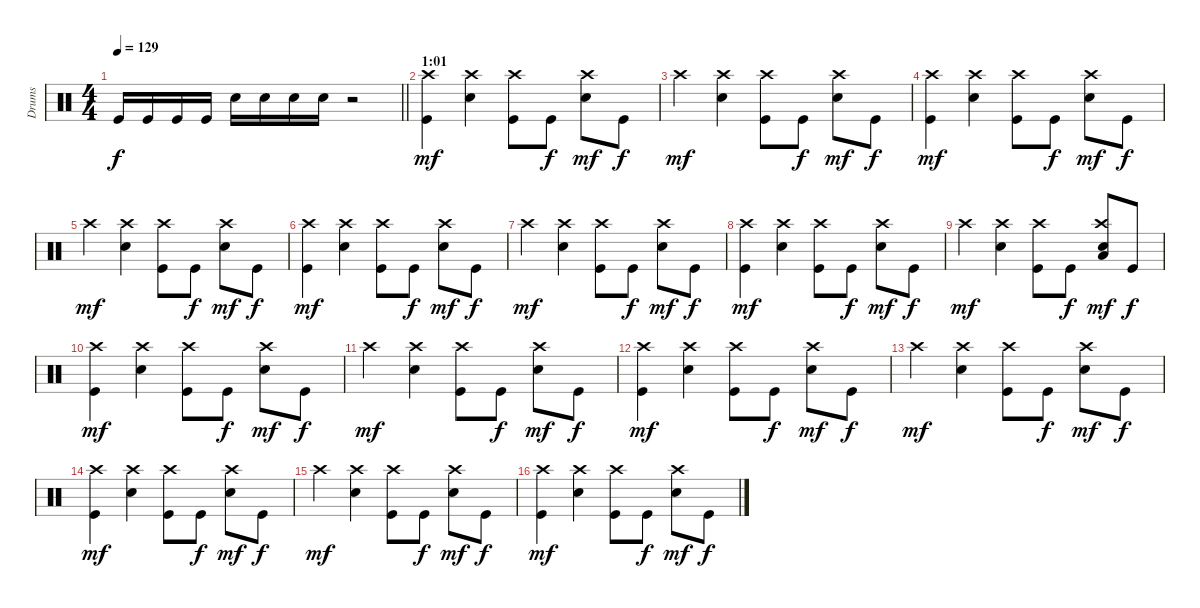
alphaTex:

\track ("Drums" "Drums") {instrument percussion}
\staff {score}
\articulation defaults
\ts (4 4)
\tempo 129
\clef neutral
\barLineRight lightlight
\ks c "Kick (hit)".16{dy f} "Kick (hit)".16 "Kick (hit)".16 "Kick (hit)".16 "Snare (hit) 2".16 "Snare (hit) 2".16 "Snare (hit) 2".16 "Snare (hit) 2".16
r.2 |
\section ("" "1:01")
("Crash high (hit)" "Kick (hit)").4{dy mf} ("Crash high (hit)" "Snare (hit) 2").4 ("Crash high (hit)" "Kick (hit)").8 "Kick (hit)".8{dy f} ("Crash high (hit)" "Snare (hit) 2").8{dy mf} "Kick (hit)".8{dy f} |
"Crash high (hit)".4{dy mf} ("Crash high (hit)" "Snare (hit) 2").4 ("Crash high (hit)" "Kick (hit)").8 "Kick (hit)".8{dy f} ("Crash high (hit)" "Snare (hit) 2").8{dy mf} "Kick (hit)".8{dy f} |
("Crash high (hit)" "Kick (hit)").4{dy mf} ("Crash high (hit)" "Snare (hit) 2").4 ("Crash high (hit)" "Kick (hit)").8 "Kick (hit)".8{dy f} ("Crash high (hit)" "Snare (hit) 2").8{dy mf} "Kick (hit)".8{dy f} |
"Crash high (hit)".4{dy mf} ("Crash high (hit)" "Snare (hit) 2").4 ("Crash high (hit)" "Kick (hit)").8 "Kick (hit)".8{dy f} ("Crash high (hit)" "Snare (hit) 2").8{dy mf} "Kick (hit)".8{dy f} |
("Crash high (hit)" "Kick (hit)").4{dy mf} ("Crash high (hit)" "Snare (hit) 2").4 ("Crash high (hit)" "Kick (hit)").8 "Kick (hit)".8{dy f} ("Crash high (hit)" "Snare (hit) 2").8{dy mf} "Kick (hit)".8{dy f} |
"Crash high (hit)".4{dy mf} ("Crash high (hit)" "Snare (hit) 2").4 ("Crash high (hit)" "Kick (hit)").8 "Kick (hit)".8{dy f} ("Crash high (hit)" "Snare (hit) 2").8{dy mf} "Kick (hit)".8{dy f} |
("Crash high (hit)" "Kick (hit)").4{dy mf} ("Crash high (hit)" "Snare (hit) 2").4 ("Crash high (hit)" "Kick (hit)").8 "Kick (hit)".8{dy f} ("Crash high (hit)" "Snare (hit) 2").8{dy mf} "Kick (hit)".8{dy f} |
"Crash high (hit)".4{dy mf} ("Crash high (hit)" "Snare (hit) 2").4 ("Crash high (hit)" "Kick (hit)").8 "Kick (hit)".8{dy f} ("Crash high (hit)" "Low Floor Tom (hit)" "Snare (hit) 2").8{dy mf} "Kick (hit)".8{dy f} |
("Crash high (hit)" "Kick (hit)").4{dy mf} ("Crash high (hit)" "Snare (hit) 2").4 ("Crash high (hit)" "Kick (hit)").8 "Kick (hit)".8{dy f} ("Crash high (hit)" "Snare (hit) 2").8{dy mf} "Kick (hit)".8{dy f} |
"Crash high (hit)".4{dy mf} ("Crash high (hit)" "Snare (hit) 2").4 ("Crash high (hit)" "Kick (hit)").8 "Kick (hit)".8{dy f} ("Crash high (hit)" "Snare (hit) 2").8{dy mf} "Kick (hit)".8{dy f} |
("Crash high (hit)" "Kick (hit)").4{dy mf} ("Crash high (hit)" "Snare (hit) 2").4 ("Crash high (hit)" "Kick (hit)").8 "Kick (hit)".8{dy f} ("Crash high (hit)" "Snare (hit) 2").8{dy mf} "Kick (hit)".8{dy f} |
"Crash high (hit)".4{dy mf} ("Crash high (hit)" "Snare (hit) 2").4 ("Crash high (hit)" "Kick (hit)").8 "Kick (hit)".8{dy f} ("Crash high (hit)" "Snare (hit) 2").8{dy mf} "Kick (hit)".8{dy f} |
("Crash high (hit)" "Kick (hit)").4{dy mf} ("Crash high (hit)" "Snare (hit) 2").4 ("Crash high (hit)" "Kick (hit)").8 "Kick (hit)".8{dy f} ("Crash high (hit)" "Snare (hit) 2").8{dy mf} "Kick (hit)".8{dy f} |
"Crash high (hit)".4{dy mf} ("Crash high (hit)" "Snare (hit) 2").4 ("Crash high (hit)" "Kick (hit)").8 "Kick (hit)".8{dy f} ("Crash high (hit)" "Snare (hit) 2").8{dy mf} "Kick (hit)".8{dy f} |
("Crash high (hit)" "Kick (hit)").4{dy mf} ("Crash high (hit)" "Snare (hit) 2").4 ("Crash high (hit)" "Kick (hit)").8 "Kick (hit)".8{dy f} ("Crash high (hit)" "Snare (hit) 2").8{dy mf} "Kick (hit)".8{dy f}
